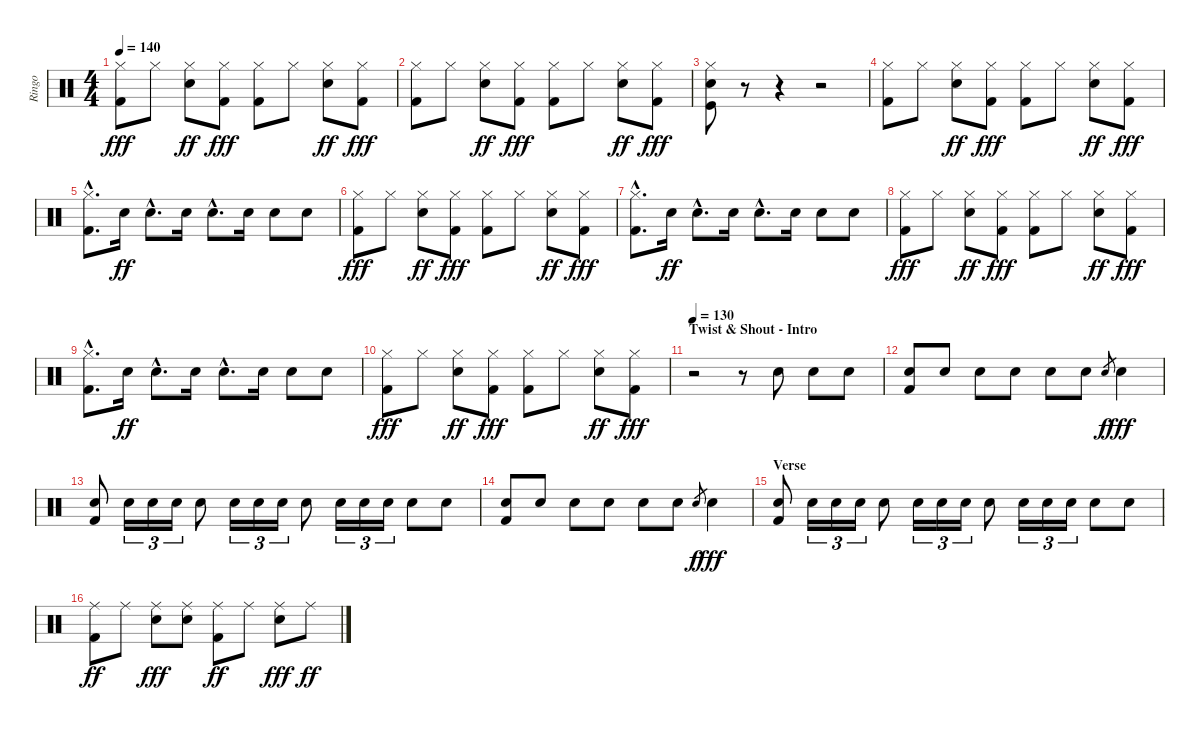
\track ("Ringo" "Ringo") {instrument percussion}
\staff {score}
\articulation defaults
\ts (4 4)
\tempo 140
\clef neutral
\ks c
("Hi-Hat (closed)" "Kick (hit) 2").8{dy fff} "Hi-Hat (closed)".8 ("Hi-Hat (closed)" "Snare (hit) 2").8{dy ff} ("Hi-Hat (closed)" "Kick (hit) 2").8{dy fff} ("Hi-Hat (closed)" "Kick (hit) 2").8 "Hi-Hat (closed)".8 ("Hi-Hat (closed)" "Snare (hit) 2").8{dy ff} ("Hi-Hat (closed)" "Kick (hit) 2").8{dy fff} |
("Hi-Hat (closed)" "Kick (hit) 2").8 "Hi-Hat (closed)".8 ("Hi-Hat (closed)" "Snare (hit) 2").8{dy ff} ("Hi-Hat (closed)" "Kick (hit) 2").8{dy fff} ("Hi-Hat (closed)" "Kick (hit) 2").8 "Hi-Hat (closed)".8 ("Hi-Hat (closed)" "Snare (hit) 2").8{dy ff} ("Hi-Hat (closed)" "Kick (hit) 2").8{dy fff} |
("Hi-Hat (closed)" "Snare (hit) 2" "Kick (hit)").8 r.8 r.4 r.2 |
("Hi-Hat (closed)" "Kick (hit) 2").8 "Hi-Hat (closed)".8 ("Hi-Hat (closed)" "Snare (hit) 2").8{dy ff} ("Hi-Hat (closed)" "Kick (hit) 2").8{dy fff} ("Hi-Hat (closed)" "Kick (hit) 2").8 "Hi-Hat (closed)".8 ("Hi-Hat (closed)" "Snare (hit) 2").8{dy ff} ("Hi-Hat (closed)" "Kick (hit) 2").8{dy fff} |
("Hi-Hat (closed)"{hac} "Kick (hit) 2"{hac}).8{d} "Snare (hit) 2".16{dy ff} "Snare (hit) 2"{hac}.8{d} "Snare (hit) 2".16 "Snare (hit) 2"{hac}.8{d} "Snare (hit) 2".16 "Snare (hit) 2".8 "Snare (hit) 2".8 |
("Hi-Hat (closed)" "Kick (hit) 2").8{dy fff} "Hi-Hat (closed)".8 ("Hi-Hat (closed)" "Snare (hit) 2").8{dy ff} ("Hi-Hat (closed)" "Kick (hit) 2").8{dy fff} ("Hi-Hat (closed)" "Kick (hit) 2").8 "Hi-Hat (closed)".8 ("Hi-Hat (closed)" "Snare (hit) 2").8{dy ff} ("Hi-Hat (closed)" "Kick (hit) 2").8{dy fff} |
("Hi-Hat (closed)"{hac} "Kick (hit) 2"{hac}).8{d} "Snare (hit) 2".16{dy ff} "Snare (hit) 2"{hac}.8{d} "Snare (hit) 2".16 "Snare (hit) 2"{hac}.8{d} "Snare (hit) 2".16 "Snare (hit) 2".8 "Snare (hit) 2".8 |
("Hi-Hat (closed)" "Kick (hit) 2").8{dy fff} "Hi-Hat (closed)".8 ("Hi-Hat (closed)" "Snare (hit) 2").8{dy ff} ("Hi-Hat (closed)" "Kick (hit) 2").8{dy fff} ("Hi-Hat (closed)" "Kick (hit) 2").8 "Hi-Hat (closed)".8 ("Hi-Hat (closed)" "Snare (hit) 2").8{dy ff} ("Hi-Hat (closed)" "Kick (hit) 2").8{dy fff} |
("Hi-Hat (closed)"{hac} "Kick (hit) 2"{hac}).8{d} "Snare (hit) 2".16{dy ff} "Snare (hit) 2"{hac}.8{d} "Snare (hit) 2".16 "Snare (hit) 2"{hac}.8{d} "Snare (hit) 2".16 "Snare (hit) 2".8 "Snare (hit) 2".8 |
("Hi-Hat (closed)" "Kick (hit) 2").8{dy fff} "Hi-Hat (closed)".8 ("Hi-Hat (closed)" "Snare (hit) 2").8{dy ff} ("Hi-Hat (closed)" "Kick (hit) 2").8{dy fff} ("Hi-Hat (closed)" "Kick (hit) 2").8 "Hi-Hat (closed)".8 ("Hi-Hat (closed)" "Snare (hit) 2").8{dy ff} ("Hi-Hat (closed)" "Kick (hit) 2").8{dy fff} |
\section ("" "Twist & Shout - Intro")
\tempo 130
r.2{volume 14 balance 8} r.8 "Electric Snare (hit)".8 "Electric Snare (hit)".8 "Electric Snare (hit)".8 |
("Electric Snare (hit)" "Kick (hit) 2").8 "Electric Snare (hit)".8 "Electric Snare (hit)".8 "Electric Snare (hit)".8 "Electric Snare (hit)".8 "Electric Snare (hit)".8 "Electric Snare (hit)".8{gr dy f} "Electric Snare (hit)".4{dy fff} |
("Electric Snare (hit)" "Kick (hit) 2").8 "Electric Snare (hit)".16{tu (3 2)} "Electric Snare (hit)".16{tu (3 2)} "Electric Snare (hit)".16{tu (3 2)} "Electric Snare (hit)".8 "Electric Snare (hit)".16{tu (3 2)} "Electric Snare (hit)".16{tu (3 2)} "Electric Snare (hit)".16{tu (3 2)} "Electric Snare (hit)".8 "Electric Snare (hit)".16{tu (3 2)} "Electric Snare (hit)".16{tu (3 2)} "Electric Snare (hit)".16{tu (3 2)} "Electric Snare (hit)".8 "Electric Snare (hit)".8 |
("Electric Snare (hit)" "Kick (hit) 2").8 "Electric Snare (hit)".8 "Electric Snare (hit)".8 "Electric Snare (hit)".8 "Electric Snare (hit)".8 "Electric Snare (hit)".8 "Electric Snare (hit)".8{gr dy f} "Electric Snare (hit)".4{dy fff} |
\section ("" "Verse")
("Electric Snare (hit)" "Kick (hit) 2").8 "Electric Snare (hit)".16{tu (3 2)} "Electric Snare (hit)".16{tu (3 2)} "Electric Snare (hit)".16{tu (3 2)} "Electric Snare (hit)".8 "Electric Snare (hit)".16{tu (3 2)} "Electric Snare (hit)".16{tu (3 2)} "Electric Snare (hit)".16{tu (3 2)} "Electric Snare (hit)".8 "Electric Snare (hit)".16{tu (3 2)} "Electric Snare (hit)".16{tu (3 2)} "Electric Snare (hit)".16{tu (3 2)} "Electric Snare (hit)".8 "Electric Snare (hit)".8 |
("Ride (middle)" "Kick (hit) 2").8{dy ff} "Ride (middle)".8 ("Ride (middle)" "Electric Snare (hit)").8{dy fff} ("Ride (middle)" "Electric Snare (hit)").8 ("Ride (middle)" "Kick (hit) 2").8{dy ff} "Ride (middle)".8 ("Ride (middle)" "Electric Snare (hit)").8{dy fff} "Ride (middle)".8{dy ff}
